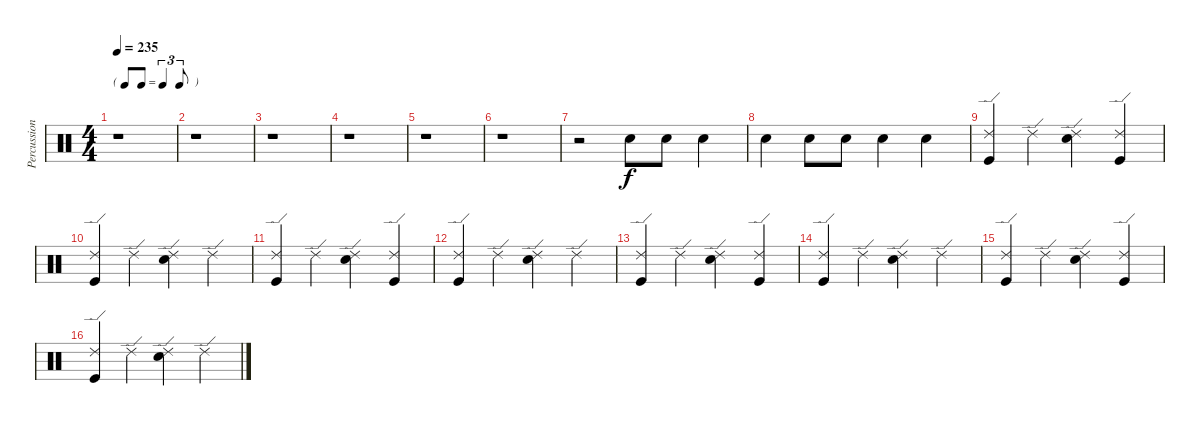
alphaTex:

\track ("Percussions" "Percussion") {instrument percussion}
\staff
\articulation defaults
\ts (4 4)
\tf triplet8th
\tempo 235
\clef neutral
\ks c
r.1{dy f} |
r.1 |
r.1 |
r.1 |
r.1 |
r.1 |
r.2 "Electric Snare (hit)".8 "Electric Snare (hit)".8 "Electric Snare (hit)".4 |
"Electric Snare (hit)".4 "Snare (hit) 2".8 "Snare (hit) 2".8 "Snare (hit) 2".4 "Snare (hit) 2".4 |
("Ride (edge) 2" "Kick (hit)").4 "Ride (edge) 2".4 ("Ride (edge) 2" "Snare (hit) 2").4 ("Ride (edge) 2" "Kick (hit)").4 |
("Ride (edge) 2" "Kick (hit)").4 "Ride (edge) 2".4 ("Ride (edge) 2" "Snare (hit) 2").4 "Ride (edge) 2".4 |
("Ride (edge) 2" "Kick (hit)").4 "Ride (edge) 2".4 ("Ride (edge) 2" "Snare (hit) 2").4 ("Ride (edge) 2" "Kick (hit)").4 |
("Ride (edge) 2" "Kick (hit)").4 "Ride (edge) 2".4 ("Ride (edge) 2" "Snare (hit) 2").4 "Ride (edge) 2".4 |
("Ride (edge) 2" "Kick (hit)").4 "Ride (edge) 2".4 ("Ride (edge) 2" "Snare (hit) 2").4 ("Ride (edge) 2" "Kick (hit)").4 |
("Ride (edge) 2" "Kick (hit)").4 "Ride (edge) 2".4 ("Ride (edge) 2" "Snare (hit) 2").4 "Ride (edge) 2".4 |
("Ride (edge) 2" "Kick (hit)").4 "Ride (edge) 2".4 ("Ride (edge) 2" "Snare (hit) 2").4 ("Ride (edge) 2" "Kick (hit)").4 |
("Ride (edge) 2" "Kick (hit)").4 "Ride (edge) 2".4 ("Ride (edge) 2" "Snare (hit) 2").4 "Ride (edge) 2".4
